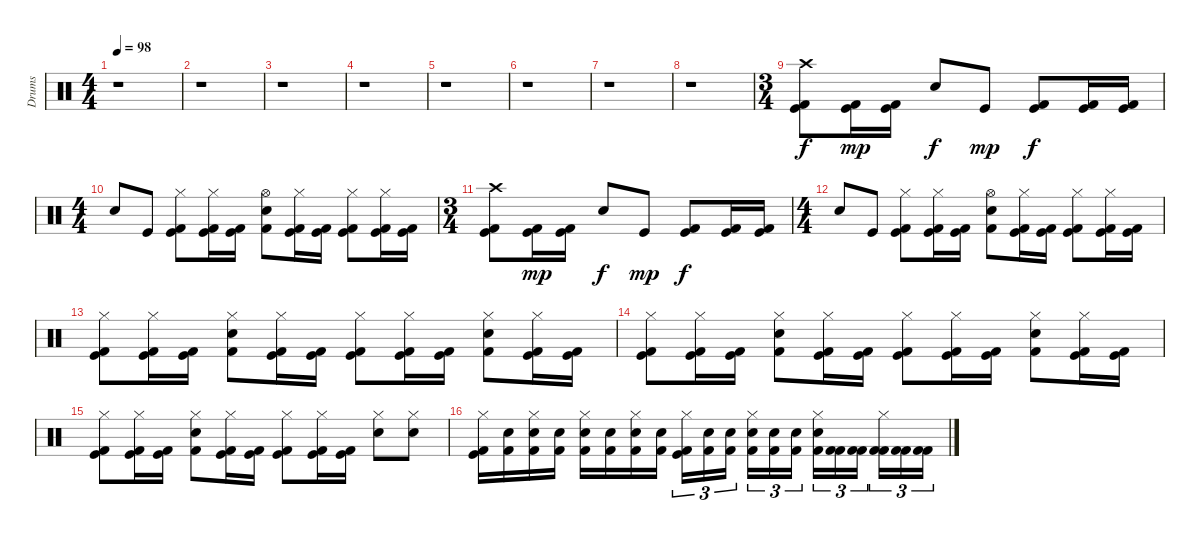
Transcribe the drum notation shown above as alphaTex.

\track ("Drums" "Drums") {instrument percussion}
\staff {score}
\articulation defaults
\ts (4 4)
\tempo 98
\clef neutral
\ks c
r.1{dy p} |
r.1 |
r.1 |
r.1 |
r.1 |
r.1 |
r.1 |
r.1 |
\ts (3 4)
("Crash high (hit)" "Kick (hit)" "Kick (hit) 2").8{dy f} ("Kick (hit)" "Kick (hit) 2").16{dy mp} ("Kick (hit)" "Kick (hit) 2").16 "Snare (hit) 2".8{dy f} "Kick (hit)".8{dy mp} ("Kick (hit)" "Kick (hit) 2").8{dy f} ("Kick (hit)" "Kick (hit) 2").16 ("Kick (hit)" "Kick (hit) 2").16 |
\ts (4 4)
"Snare (hit) 2".8 "Kick (hit)".8 ("Hi-Hat (closed)" "Kick (hit)" "Kick (hit) 2").8 ("Hi-Hat (closed)" "Kick (hit)" "Kick (hit) 2").16 ("Kick (hit)" "Kick (hit) 2").16 ("Hi-Hat (open)" "Snare (hit) 2" "Kick (hit) 2").8 ("Hi-Hat (closed)" "Kick (hit)" "Kick (hit) 2").16 ("Kick (hit)" "Kick (hit) 2").16 ("Hi-Hat (closed)" "Kick (hit)" "Kick (hit) 2").8 ("Hi-Hat (closed)" "Kick (hit)" "Kick (hit) 2").16 ("Kick (hit)" "Kick (hit) 2").16 |
\ts (3 4)
("Crash high (hit)" "Kick (hit)" "Kick (hit) 2").8 ("Kick (hit)" "Kick (hit) 2").16{dy mp} ("Kick (hit)" "Kick (hit) 2").16 "Snare (hit) 2".8{dy f} "Kick (hit)".8{dy mp} ("Kick (hit)" "Kick (hit) 2").8{dy f} ("Kick (hit)" "Kick (hit) 2").16 ("Kick (hit)" "Kick (hit) 2").16 |
\ts (4 4)
"Snare (hit) 2".8 "Kick (hit)".8 ("Hi-Hat (closed)" "Kick (hit)" "Kick (hit) 2").8 ("Hi-Hat (closed)" "Kick (hit)" "Kick (hit) 2").16 ("Kick (hit)" "Kick (hit) 2").16 ("Hi-Hat (open)" "Snare (hit) 2" "Kick (hit) 2").8 ("Hi-Hat (closed)" "Kick (hit)" "Kick (hit) 2").16 ("Kick (hit)" "Kick (hit) 2").16 ("Hi-Hat (closed)" "Kick (hit)" "Kick (hit) 2").8 ("Hi-Hat (closed)" "Kick (hit)" "Kick (hit) 2").16 ("Kick (hit)" "Kick (hit) 2").16 |
("Hi-Hat (closed)" "Kick (hit)" "Kick (hit) 2").8 ("Hi-Hat (closed)" "Kick (hit)" "Kick (hit) 2").16 ("Kick (hit)" "Kick (hit) 2").16 ("Hi-Hat (closed)" "Snare (hit) 2" "Kick (hit) 2").8 ("Hi-Hat (closed)" "Kick (hit)" "Kick (hit) 2").16 ("Kick (hit)" "Kick (hit) 2").16 ("Hi-Hat (closed)" "Kick (hit)" "Kick (hit) 2").8 ("Hi-Hat (closed)" "Kick (hit)" "Kick (hit) 2").16 ("Kick (hit)" "Kick (hit) 2").16 ("Hi-Hat (closed)" "Snare (hit) 2" "Kick (hit) 2").8 ("Hi-Hat (closed)" "Kick (hit)" "Kick (hit) 2").16 ("Kick (hit)" "Kick (hit) 2").16 |
("Hi-Hat (closed)" "Kick (hit)" "Kick (hit) 2").8 ("Hi-Hat (closed)" "Kick (hit)" "Kick (hit) 2").16 ("Kick (hit)" "Kick (hit) 2").16 ("Hi-Hat (closed)" "Snare (hit) 2" "Kick (hit) 2").8 ("Hi-Hat (closed)" "Kick (hit)" "Kick (hit) 2").16 ("Kick (hit)" "Kick (hit) 2").16 ("Hi-Hat (closed)" "Kick (hit)" "Kick (hit) 2").8 ("Hi-Hat (closed)" "Kick (hit)" "Kick (hit) 2").16 ("Kick (hit)" "Kick (hit) 2").16 ("Hi-Hat (closed)" "Snare (hit) 2" "Kick (hit) 2").8 ("Hi-Hat (closed)" "Kick (hit)" "Kick (hit) 2").16 ("Kick (hit)" "Kick (hit) 2").16 |
("Hi-Hat (closed)" "Kick (hit)" "Kick (hit) 2").8 ("Hi-Hat (closed)" "Kick (hit)" "Kick (hit) 2").16 ("Kick (hit)" "Kick (hit) 2").16 ("Hi-Hat (closed)" "Snare (hit) 2" "Kick (hit) 2").8 ("Hi-Hat (closed)" "Kick (hit)" "Kick (hit) 2").16 ("Kick (hit)" "Kick (hit) 2").16 ("Hi-Hat (closed)" "Kick (hit)" "Kick (hit) 2").8 ("Hi-Hat (closed)" "Kick (hit)" "Kick (hit) 2").16 ("Kick (hit)" "Kick (hit) 2").16 ("Hi-Hat (closed)" "Snare (hit) 2").8 ("Snare (hit) 2" "Hi-Hat (closed)").8 |
("Hi-Hat (closed)" "Kick (hit)" "Kick (hit) 2").16 ("Snare (hit) 2" "Kick (hit) 2").16 ("Hi-Hat (closed)" "Snare (hit) 2" "Kick (hit) 2").16 ("Snare (hit) 2" "Kick (hit) 2").16 ("Hi-Hat (closed)" "Snare (hit) 2" "Kick (hit) 2").16 ("Snare (hit) 2" "Kick (hit) 2").16 ("Hi-Hat (closed)" "Snare (hit) 2" "Kick (hit) 2").16 ("Snare (hit) 2" "Kick (hit) 2").16 ("Hi-Hat (closed)" "Kick (hit)" "Kick (hit) 2").16{tu (3 2)} ("Snare (hit) 2" "Kick (hit) 2").16{tu (3 2)} ("Snare (hit) 2" "Kick (hit) 2").16{tu (3 2)} ("Hi-Hat (closed)" "Snare (hit) 2" "Kick (hit) 2").16{tu (3 2)} ("Snare (hit) 2" "Kick (hit) 2").16{tu (3 2)} ("Snare (hit) 2" "Kick (hit) 2").16{tu (3 2)} ("Hi-Hat (closed)" "Snare (hit) 2" "Kick (hit) 2").16{tu (3 2)} ("Kick (hit) 2" "Kick (hit) 2").16{tu (3 2)} ("Kick (hit) 2" "Kick (hit) 2").16{tu (3 2)} ("Hi-Hat (closed)" "Kick (hit) 2" "Kick (hit) 2").16{tu (3 2)} ("Kick (hit) 2" "Kick (hit) 2").16{tu (3 2)} ("Kick (hit) 2" "Kick (hit) 2").16{tu (3 2)}
